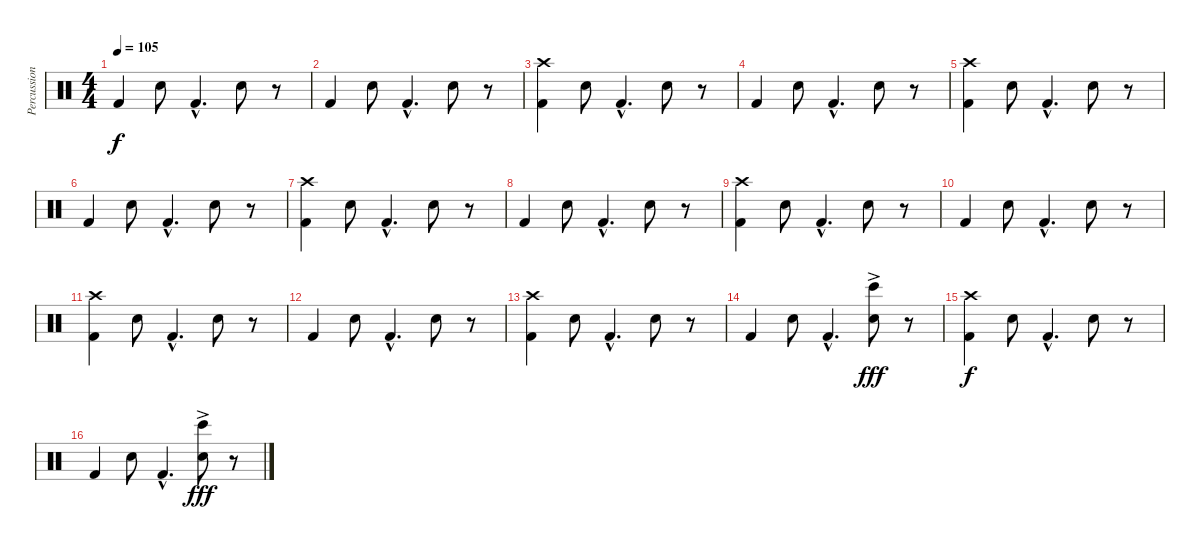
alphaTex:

\track ("Percussion" "Percussion") {instrument percussion}
\staff {score}
\articulation defaults
\ts (4 4)
\tempo 105
\clef neutral
\ks c "Kick (hit) 2".4{dy f} "Hand Clap (hit)".8 "Kick (hit) 2"{hac}.4{d} "Hand Clap (hit)".8
r.8 |
"Kick (hit) 2".4 "Hand Clap (hit)".8 "Kick (hit) 2"{hac}.4{d} "Hand Clap (hit)".8 r.8 |
("Crash high (hit)" "Kick (hit) 2").4 "Hand Clap (hit)".8 "Kick (hit) 2"{hac}.4{d} "Hand Clap (hit)".8 r.8 |
"Kick (hit) 2".4 "Hand Clap (hit)".8 "Kick (hit) 2"{hac}.4{d} "Hand Clap (hit)".8 r.8 |
("Crash high (hit)" "Kick (hit) 2").4 "Hand Clap (hit)".8 "Kick (hit) 2"{hac}.4{d} "Hand Clap (hit)".8 r.8 |
"Kick (hit) 2".4 "Hand Clap (hit)".8 "Kick (hit) 2"{hac}.4{d} "Hand Clap (hit)".8 r.8 |
("Crash high (hit)" "Kick (hit) 2").4 "Hand Clap (hit)".8 "Kick (hit) 2"{hac}.4{d} "Hand Clap (hit)".8 r.8 |
"Kick (hit) 2".4 "Hand Clap (hit)".8 "Kick (hit) 2"{hac}.4{d} "Hand Clap (hit)".8 r.8 |
("Crash high (hit)" "Kick (hit) 2").4 "Hand Clap (hit)".8 "Kick (hit) 2"{hac}.4{d} "Hand Clap (hit)".8 r.8 |
"Kick (hit) 2".4 "Hand Clap (hit)".8 "Kick (hit) 2"{hac}.4{d} "Hand Clap (hit)".8 r.8 |
("Crash high (hit)" "Kick (hit) 2").4 "Hand Clap (hit)".8 "Kick (hit) 2"{hac}.4{d} "Hand Clap (hit)".8 r.8 |
"Kick (hit) 2".4 "Hand Clap (hit)".8 "Kick (hit) 2"{hac}.4{d} "Hand Clap (hit)".8 r.8 |
("Crash high (hit)" "Kick (hit) 2").4 "Hand Clap (hit)".8 "Kick (hit) 2"{hac}.4{d} "Hand Clap (hit)".8 r.8 |
"Kick (hit) 2".4 "Hand Clap (hit)".8 "Kick (hit) 2"{hac}.4{d} ("Bongo High (hit)"{ac} "Hand Clap (hit)"{ac}).8{dy fff} r.8 |
("Crash high (hit)" "Kick (hit) 2").4{dy f} "Hand Clap (hit)".8 "Kick (hit) 2"{hac}.4{d} "Hand Clap (hit)".8 r.8 |
"Kick (hit) 2".4 "Hand Clap (hit)".8 "Kick (hit) 2"{hac}.4{d} ("Bongo High (hit)"{ac} "Hand Clap (hit)"{ac}).8{dy fff} r.8
